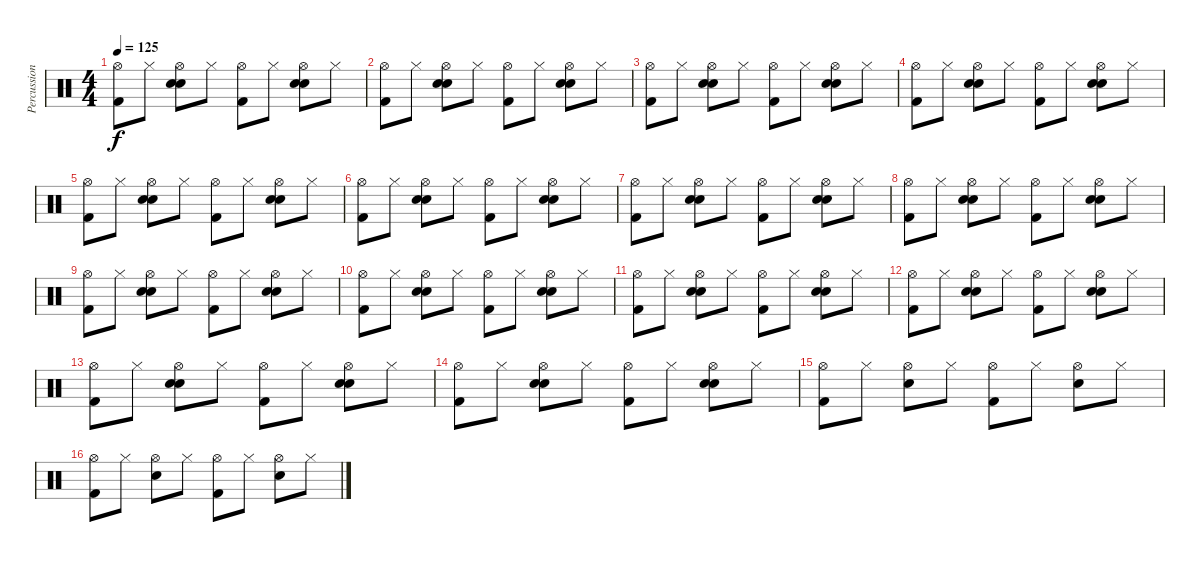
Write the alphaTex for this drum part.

\track ("Percussions" "Percussion") {instrument percussion}
\staff {score}
\articulation defaults
\ts (4 4)
\tempo 125
\clef neutral
\ks c
("Hi-Hat (open)" "Kick (hit) 2").8{dy f} "Hi-Hat (closed)".8 ("Hi-Hat (open)" "Electric Snare (hit)" "Snare (hit) 2").8 "Hi-Hat (closed)".8 ("Hi-Hat (open)" "Kick (hit) 2").8 "Hi-Hat (closed)".8 ("Hi-Hat (open)" "Electric Snare (hit)" "Snare (hit) 2").8 "Hi-Hat (closed)".8 |
("Hi-Hat (open)" "Kick (hit) 2").8 "Hi-Hat (closed)".8 ("Hi-Hat (open)" "Electric Snare (hit)" "Snare (hit) 2").8 "Hi-Hat (closed)".8 ("Hi-Hat (open)" "Kick (hit) 2").8 "Hi-Hat (closed)".8 ("Hi-Hat (open)" "Electric Snare (hit)" "Snare (hit) 2").8 "Hi-Hat (closed)".8 |
("Hi-Hat (open)" "Kick (hit) 2").8 "Hi-Hat (closed)".8 ("Hi-Hat (open)" "Electric Snare (hit)" "Snare (hit) 2").8 "Hi-Hat (closed)".8 ("Hi-Hat (open)" "Kick (hit) 2").8 "Hi-Hat (closed)".8 ("Hi-Hat (open)" "Electric Snare (hit)" "Snare (hit) 2").8 "Hi-Hat (closed)".8 |
("Hi-Hat (open)" "Kick (hit) 2").8 "Hi-Hat (closed)".8 ("Hi-Hat (open)" "Electric Snare (hit)" "Snare (hit) 2").8 "Hi-Hat (closed)".8 ("Hi-Hat (open)" "Kick (hit) 2").8 "Hi-Hat (closed)".8 ("Hi-Hat (open)" "Electric Snare (hit)" "Snare (hit) 2").8 "Hi-Hat (closed)".8 |
("Hi-Hat (open)" "Kick (hit) 2").8 "Hi-Hat (closed)".8 ("Hi-Hat (open)" "Electric Snare (hit)" "Snare (hit) 2").8 "Hi-Hat (closed)".8 ("Hi-Hat (open)" "Kick (hit) 2").8 "Hi-Hat (closed)".8 ("Hi-Hat (open)" "Electric Snare (hit)" "Snare (hit) 2").8 "Hi-Hat (closed)".8 |
("Hi-Hat (open)" "Kick (hit) 2").8 "Hi-Hat (closed)".8 ("Hi-Hat (open)" "Electric Snare (hit)" "Snare (hit) 2").8 "Hi-Hat (closed)".8 ("Hi-Hat (open)" "Kick (hit) 2").8 "Hi-Hat (closed)".8 ("Hi-Hat (open)" "Electric Snare (hit)" "Snare (hit) 2").8 "Hi-Hat (closed)".8 |
("Hi-Hat (open)" "Kick (hit) 2").8 "Hi-Hat (closed)".8 ("Hi-Hat (open)" "Electric Snare (hit)" "Snare (hit) 2").8 "Hi-Hat (closed)".8 ("Hi-Hat (open)" "Kick (hit) 2").8 "Hi-Hat (closed)".8 ("Hi-Hat (open)" "Electric Snare (hit)" "Snare (hit) 2").8 "Hi-Hat (closed)".8 |
("Hi-Hat (open)" "Kick (hit) 2").8 "Hi-Hat (closed)".8 ("Hi-Hat (open)" "Electric Snare (hit)" "Snare (hit) 2").8 "Hi-Hat (closed)".8 ("Hi-Hat (open)" "Kick (hit) 2").8 "Hi-Hat (closed)".8 ("Hi-Hat (open)" "Electric Snare (hit)" "Snare (hit) 2").8 "Hi-Hat (closed)".8 |
("Hi-Hat (open)" "Kick (hit) 2").8 "Hi-Hat (closed)".8 ("Hi-Hat (open)" "Electric Snare (hit)" "Snare (hit) 2").8 "Hi-Hat (closed)".8 ("Hi-Hat (open)" "Kick (hit) 2").8 "Hi-Hat (closed)".8 ("Hi-Hat (open)" "Electric Snare (hit)" "Snare (hit) 2").8 "Hi-Hat (closed)".8 |
("Hi-Hat (open)" "Kick (hit) 2").8 "Hi-Hat (closed)".8 ("Hi-Hat (open)" "Electric Snare (hit)" "Snare (hit) 2").8 "Hi-Hat (closed)".8 ("Hi-Hat (open)" "Kick (hit) 2").8 "Hi-Hat (closed)".8 ("Hi-Hat (open)" "Electric Snare (hit)" "Snare (hit) 2").8 "Hi-Hat (closed)".8 |
("Hi-Hat (open)" "Kick (hit) 2").8 "Hi-Hat (closed)".8 ("Hi-Hat (open)" "Electric Snare (hit)" "Snare (hit) 2").8 "Hi-Hat (closed)".8 ("Hi-Hat (open)" "Kick (hit) 2").8 "Hi-Hat (closed)".8 ("Hi-Hat (open)" "Electric Snare (hit)" "Snare (hit) 2").8 "Hi-Hat (closed)".8 |
("Hi-Hat (open)" "Kick (hit) 2").8 "Hi-Hat (closed)".8 ("Hi-Hat (open)" "Electric Snare (hit)" "Snare (hit) 2").8 "Hi-Hat (closed)".8 ("Hi-Hat (open)" "Kick (hit) 2").8 "Hi-Hat (closed)".8 ("Hi-Hat (open)" "Electric Snare (hit)" "Snare (hit) 2").8 "Hi-Hat (closed)".8 |
("Hi-Hat (open)" "Kick (hit) 2").8 "Hi-Hat (closed)".8 ("Hi-Hat (open)" "Electric Snare (hit)" "Snare (hit) 2").8 "Hi-Hat (closed)".8 ("Hi-Hat (open)" "Kick (hit) 2").8 "Hi-Hat (closed)".8 ("Hi-Hat (open)" "Electric Snare (hit)" "Snare (hit) 2").8 "Hi-Hat (closed)".8 |
("Hi-Hat (open)" "Kick (hit) 2").8 "Hi-Hat (closed)".8 ("Hi-Hat (open)" "Electric Snare (hit)" "Snare (hit) 2").8 "Hi-Hat (closed)".8 ("Hi-Hat (open)" "Kick (hit) 2").8 "Hi-Hat (closed)".8 ("Hi-Hat (open)" "Electric Snare (hit)" "Snare (hit) 2").8 "Hi-Hat (closed)".8 |
("Hi-Hat (open)" "Kick (hit) 2").8 "Hi-Hat (closed)".8 ("Hi-Hat (open)" "Snare (hit) 2").8 "Hi-Hat (closed)".8 ("Hi-Hat (open)" "Kick (hit) 2").8 "Hi-Hat (closed)".8 ("Hi-Hat (open)" "Snare (hit) 2").8 "Hi-Hat (closed)".8 |
("Hi-Hat (open)" "Kick (hit) 2").8 "Hi-Hat (closed)".8 ("Hi-Hat (open)" "Snare (hit) 2").8 "Hi-Hat (closed)".8 ("Hi-Hat (open)" "Kick (hit) 2").8 "Hi-Hat (closed)".8 ("Hi-Hat (open)" "Snare (hit) 2").8 "Hi-Hat (closed)".8
